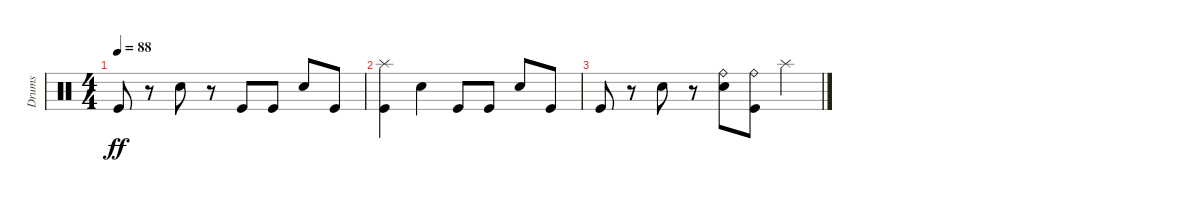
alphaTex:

\track ("Drums" "Drums") {instrument percussion}
\staff {score}
\articulation defaults
\ts (4 4)
\tempo 88
\clef neutral
\ks c "Kick (hit)".8{dy ff}
r.8 "Snare (hit) 2".8 r.8 "Kick (hit)".8 "Kick (hit)".8 "Snare (hit) 2".8 "Kick (hit)".8 |
("Kick (hit)" "Splash (hit)").4 "Snare (hit) 2".4 "Kick (hit)".8 "Kick (hit)".8 "Snare (hit) 2".8 "Kick (hit)".8 |
"Kick (hit)".8 r.8 "Snare (hit) 2".8 r.8 ("Snare (hit) 2" "Ride (bell)").8 ("Kick (hit)" "Ride (bell)").8 "Splash (hit)".4
